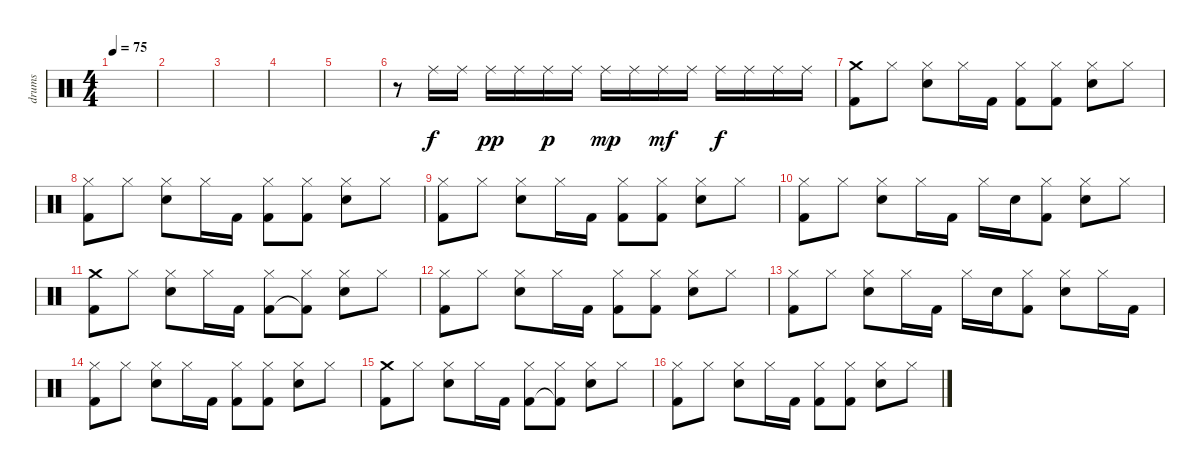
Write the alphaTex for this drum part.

\track ("drums" "drums") {instrument percussion}
\staff {score}
\articulation defaults
\ts (4 4)
\tempo 75
\clef neutral
\ks c
|
|
|
|
|
r.8 "Ride (middle)".16 "Ride (middle)".16 "Ride (middle)".16{dy pp} "Ride (middle)".16 "Ride (middle)".16{dy p} "Ride (middle)".16 "Ride (middle)".16{dy mp} "Ride (middle)".16 "Ride (middle)".16{dy mf} "Ride (middle)".16 "Ride (middle)".16{dy f} "Ride (middle)".16 "Ride (middle)".16 "Ride (middle)".16 |
("Crash medium (hit)" "Kick (hit) 2").8 "Hi-Hat (closed)".8 ("Hi-Hat (closed)" "Snare (hit) 2").8 "Hi-Hat (closed)".16 "Kick (hit) 2".16 ("Hi-Hat (closed)" "Kick (hit) 2").8 ("Hi-Hat (closed)" "Kick (hit) 2").8 ("Hi-Hat (closed)" "Snare (hit) 2").8 "Hi-Hat (closed)".8 |
("Hi-Hat (closed)" "Kick (hit) 2").8 "Hi-Hat (closed)".8 ("Hi-Hat (closed)" "Snare (hit) 2").8 "Hi-Hat (closed)".16 "Kick (hit) 2".16 ("Hi-Hat (closed)" "Kick (hit) 2").8 ("Hi-Hat (closed)" "Kick (hit) 2").8 ("Hi-Hat (closed)" "Snare (hit) 2").8 "Hi-Hat (closed)".8 |
("Hi-Hat (closed)" "Kick (hit) 2").8 "Hi-Hat (closed)".8 ("Hi-Hat (closed)" "Snare (hit) 2").8 "Hi-Hat (closed)".16 "Kick (hit) 2".16 ("Hi-Hat (closed)" "Kick (hit) 2").8 ("Hi-Hat (closed)" "Kick (hit) 2").8 ("Hi-Hat (closed)" "Snare (hit) 2").8 "Hi-Hat (closed)".8 |
("Hi-Hat (closed)" "Kick (hit) 2").8 "Hi-Hat (closed)".8 ("Hi-Hat (closed)" "Snare (hit) 2").8 "Hi-Hat (closed)".16 "Kick (hit) 2".16 "Hi-Hat (closed)".16 "Snare (hit) 2".16 ("Hi-Hat (closed)" "Kick (hit) 2").8 ("Hi-Hat (closed)" "Snare (hit) 2").8 "Hi-Hat (closed)".8 |
("Crash medium (hit)" "Kick (hit) 2").8 "Hi-Hat (closed)".8 ("Hi-Hat (closed)" "Snare (hit) 2").8 "Hi-Hat (closed)".16 "Kick (hit) 2".16 ("Hi-Hat (closed)" "Kick (hit) 2").8 ("Hi-Hat (closed)" "Kick (hit) 2"{t}).8 ("Hi-Hat (closed)" "Snare (hit) 2").8 "Hi-Hat (closed)".8 |
("Hi-Hat (closed)" "Kick (hit) 2").8 "Hi-Hat (closed)".8 ("Hi-Hat (closed)" "Snare (hit) 2").8 "Hi-Hat (closed)".16 "Kick (hit) 2".16 ("Hi-Hat (closed)" "Kick (hit) 2").8 ("Hi-Hat (closed)" "Kick (hit) 2").8 ("Hi-Hat (closed)" "Snare (hit) 2").8 "Hi-Hat (closed)".8 |
("Hi-Hat (closed)" "Kick (hit) 2").8 "Hi-Hat (closed)".8 ("Hi-Hat (closed)" "Snare (hit) 2").8 "Hi-Hat (closed)".16 "Kick (hit) 2".16 "Hi-Hat (closed)".16 "Snare (hit) 2".16 ("Hi-Hat (closed)" "Kick (hit) 2").8 ("Hi-Hat (closed)" "Snare (hit) 2").8 "Hi-Hat (closed)".16 "Kick (hit) 2".16 |
("Hi-Hat (closed)" "Kick (hit) 2").8 "Hi-Hat (closed)".8 ("Hi-Hat (closed)" "Snare (hit) 2").8 "Hi-Hat (closed)".16 "Kick (hit) 2".16 ("Hi-Hat (closed)" "Kick (hit) 2").8 ("Hi-Hat (closed)" "Kick (hit) 2").8 ("Hi-Hat (closed)" "Snare (hit) 2").8 "Hi-Hat (closed)".8 |
("Crash medium (hit)" "Kick (hit) 2").8 "Hi-Hat (closed)".8 ("Hi-Hat (closed)" "Snare (hit) 2").8 "Hi-Hat (closed)".16 "Kick (hit) 2".16 ("Hi-Hat (closed)" "Kick (hit) 2").8 ("Hi-Hat (closed)" "Kick (hit) 2"{t}).8 ("Hi-Hat (closed)" "Snare (hit) 2").8 "Hi-Hat (closed)".8 |
("Hi-Hat (closed)" "Kick (hit) 2").8 "Hi-Hat (closed)".8 ("Hi-Hat (closed)" "Snare (hit) 2").8 "Hi-Hat (closed)".16 "Kick (hit) 2".16 ("Hi-Hat (closed)" "Kick (hit) 2").8 ("Hi-Hat (closed)" "Kick (hit) 2").8 ("Hi-Hat (closed)" "Snare (hit) 2").8 "Hi-Hat (closed)".8
